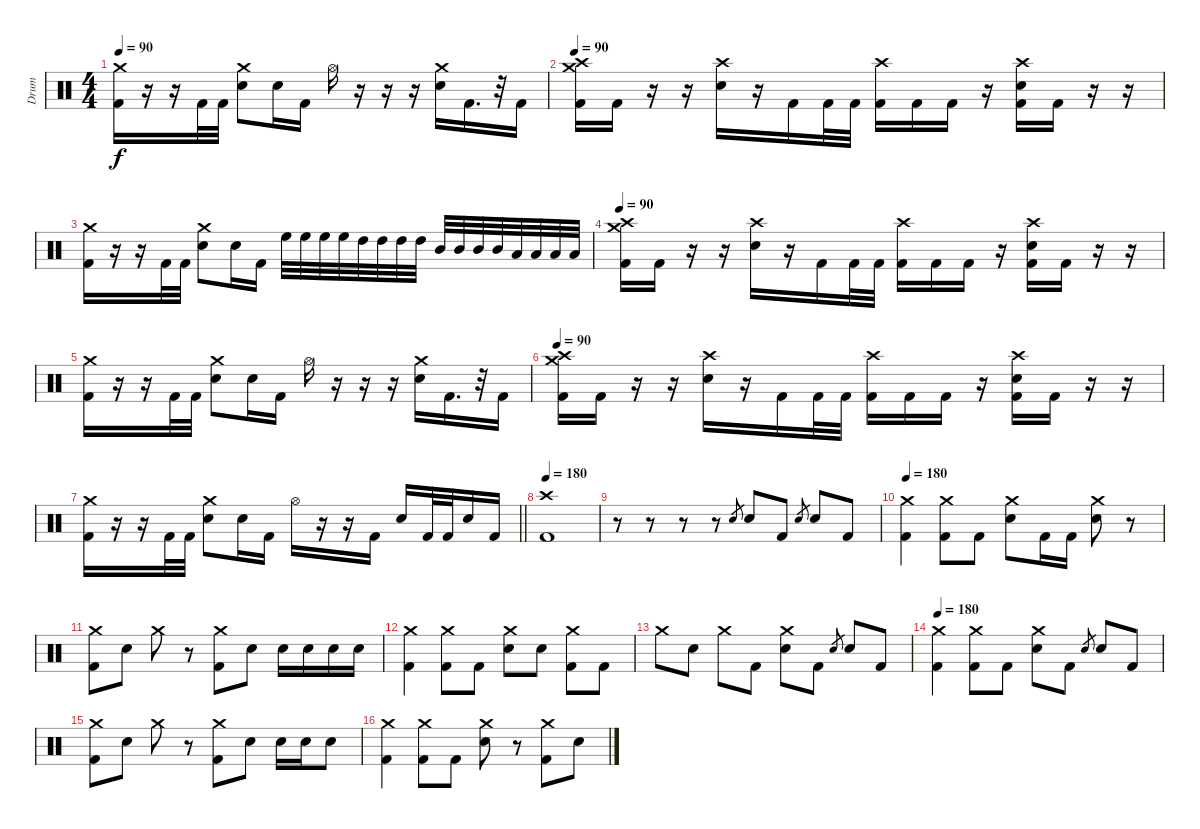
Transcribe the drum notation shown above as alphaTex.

\track ("Drum" "Drum") {instrument percussion}
\staff {score}
\articulation defaults
\ts (4 4)
\tempo 90
\clef neutral
\ks c
("Crash medium (hit)" "Kick (hit) 2").16{dy f} r.16 r.16 "Kick (hit) 2".32 "Kick (hit) 2".32 ("Crash medium (hit)" "Snare (hit) 2").8 "Snare (hit) 2".16 "Kick (hit) 2".16 "Hi-Hat (open)".16 r.16 r.16 r.16 ("Crash medium (hit)" "Snare (hit) 2").16 "Kick (hit) 2".16{d} r.32 "Kick (hit) 2".16 |
\tempo 90
("Crash high (hit)" "Crash medium (hit)" "Kick (hit) 2").16 "Kick (hit) 2".16 r.16 r.16 ("Crash high (hit)" "Snare (hit) 2").16 r.16 "Kick (hit) 2".16 "Kick (hit) 2".32 "Kick (hit) 2".32 ("Crash high (hit)" "Kick (hit) 2").16 "Kick (hit) 2".16 "Kick (hit) 2".16 r.16 ("Crash high (hit)" "Snare (hit) 2" "Kick (hit) 2").16 "Kick (hit) 2".16 r.16 r.16 |
("Crash medium (hit)" "Kick (hit) 2").16 r.16 r.16 "Kick (hit) 2".32 "Kick (hit) 2".32 ("Crash medium (hit)" "Snare (hit) 2").8 "Snare (hit) 2".16 "Kick (hit) 2".16 "High Floor Tom (hit)".32 "High Floor Tom (hit)".32 "High Floor Tom (hit)".32 "High Floor Tom (hit)".32 "High Tom (hit)".32 "High Tom (hit)".32 "High Tom (hit)".32 "High Tom (hit)".32 "Mid Tom (hit)".32 "Mid Tom (hit)".32 "Mid Tom (hit)".32 "Mid Tom (hit)".32 "Low Tom (hit)".32 "Low Tom (hit)".32 "Low Tom (hit)".32 "Low Tom (hit)".32 |
\tempo 90
("Crash high (hit)" "Crash medium (hit)" "Kick (hit) 2").16 "Kick (hit) 2".16 r.16 r.16 ("Crash high (hit)" "Snare (hit) 2").16 r.16 "Kick (hit) 2".16 "Kick (hit) 2".32 "Kick (hit) 2".32 ("Crash high (hit)" "Kick (hit) 2").16 "Kick (hit) 2".16 "Kick (hit) 2".16 r.16 ("Crash high (hit)" "Snare (hit) 2" "Kick (hit) 2").16 "Kick (hit) 2".16 r.16 r.16 |
("Crash medium (hit)" "Kick (hit) 2").16 r.16 r.16 "Kick (hit) 2".32 "Kick (hit) 2".32 ("Crash medium (hit)" "Snare (hit) 2").8 "Snare (hit) 2".16 "Kick (hit) 2".16 "Hi-Hat (open)".16 r.16 r.16 r.16 ("Crash medium (hit)" "Snare (hit) 2").16 "Kick (hit) 2".16{d} r.32 "Kick (hit) 2".16 |
\tempo 90
("Crash high (hit)" "Crash medium (hit)" "Kick (hit) 2").16 "Kick (hit) 2".16 r.16 r.16 ("Crash high (hit)" "Snare (hit) 2").16 r.16 "Kick (hit) 2".16 "Kick (hit) 2".32 "Kick (hit) 2".32 ("Crash high (hit)" "Kick (hit) 2").16 "Kick (hit) 2".16 "Kick (hit) 2".16 r.16 ("Crash high (hit)" "Snare (hit) 2" "Kick (hit) 2").16 "Kick (hit) 2".16 r.16 r.16 |
\barLineRight lightlight
("Crash medium (hit)" "Kick (hit) 2").16 r.16 r.16 "Kick (hit) 2".32 "Kick (hit) 2".32 ("Crash medium (hit)" "Snare (hit) 2").8 "Snare (hit) 2".16 "Kick (hit) 2".16 "Hi-Hat (open)".16 r.16 r.16 "Kick (hit) 2".16 "Snare (hit) 2".16 "Kick (hit) 2".32 "Kick (hit) 2".32 "Snare (hit) 2".16 "Kick (hit) 2".16 |
\tempo 180
("Crash high (hit)" "Kick (hit) 2").1 |
r.8 r.8 r.8 r.8 "Snare (hit) 2".8{gr} "Snare (hit) 2".8 "Kick (hit) 2".8 "Snare (hit) 2".8{gr} "Snare (hit) 2".8 "Kick (hit) 2".8 |
\tempo 180
("Crash medium (hit)" "Kick (hit) 2").4 ("Crash medium (hit)" "Kick (hit) 2").8 "Kick (hit) 2".8 ("Crash medium (hit)" "Snare (hit) 2").8 "Kick (hit) 2".16 "Kick (hit) 2".16 ("Crash medium (hit)" "Snare (hit) 2").8 r.8 |
("Crash medium (hit)" "Kick (hit) 2").8 "Snare (hit) 2".8 "Crash medium (hit)".8 r.8 ("Crash medium (hit)" "Kick (hit) 2").8 "Snare (hit) 2".8 "Snare (hit) 2".16 "Snare (hit) 2".16 "Snare (hit) 2".16 "Snare (hit) 2".16 |
("Crash medium (hit)" "Kick (hit) 2").4 ("Crash medium (hit)" "Kick (hit) 2").8 "Kick (hit) 2".8 ("Crash medium (hit)" "Snare (hit) 2").8 "Snare (hit) 2".8 ("Crash medium (hit)" "Kick (hit) 2").8 "Kick (hit) 2".8 |
"Crash medium (hit)".8 "Snare (hit) 2".8 "Crash medium (hit)".8 "Kick (hit) 2".8 ("Crash medium (hit)" "Snare (hit) 2").8 "Kick (hit) 2".8 "Snare (hit) 2".8{gr} "Snare (hit) 2".8 "Kick (hit) 2".8 |
\tempo 180
("Crash medium (hit)" "Kick (hit) 2").4 ("Crash medium (hit)" "Kick (hit) 2").8 "Kick (hit) 2".8 ("Crash medium (hit)" "Snare (hit) 2").8 "Kick (hit) 2".8 "Snare (hit) 2".8{gr} "Snare (hit) 2".8 "Kick (hit) 2".8 |
("Crash medium (hit)" "Kick (hit) 2").8 "Snare (hit) 2".8 "Crash medium (hit)".8 r.8 ("Crash medium (hit)" "Kick (hit) 2").8 "Snare (hit) 2".8 "Snare (hit) 2".16 "Snare (hit) 2".16 "Snare (hit) 2".8 |
("Crash medium (hit)" "Kick (hit) 2").4 ("Crash medium (hit)" "Kick (hit) 2").8 "Kick (hit) 2".8 ("Crash medium (hit)" "Snare (hit) 2").8 r.8 ("Crash medium (hit)" "Kick (hit) 2").8 "Snare (hit) 2".8
